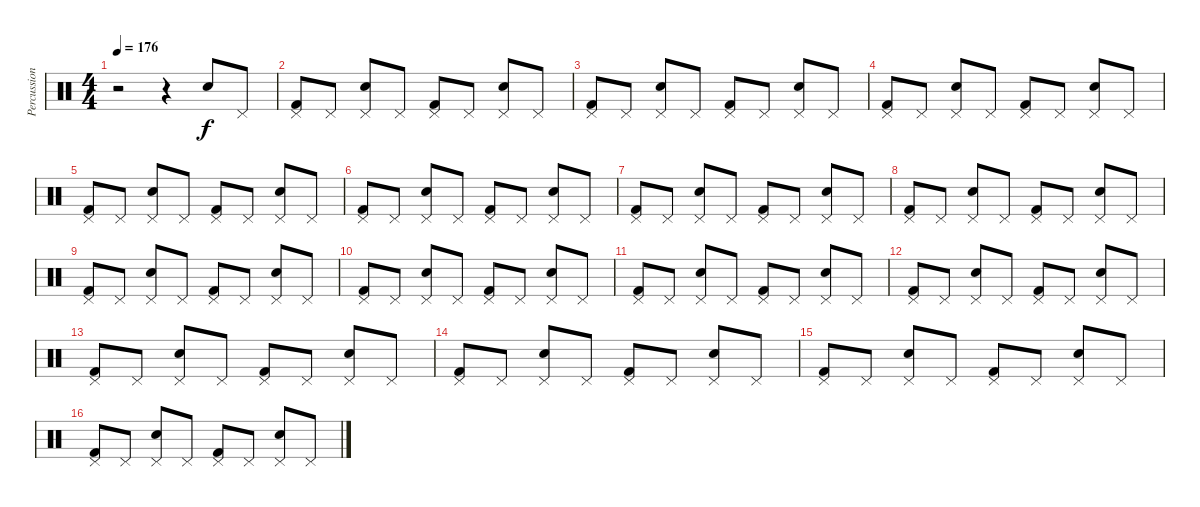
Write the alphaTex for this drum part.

\track ("Percussions" "Percussion") {instrument percussion}
\staff {score}
\articulation defaults
\ts (4 4)
\tempo 176
\clef neutral
\ks c
r.2{dy f} r.4 "Electric Snare (hit)".8 "Pedal Hi-Hat (hit)".8 |
("Pedal Hi-Hat (hit)" "Kick (hit) 2").8 "Pedal Hi-Hat (hit)".8 ("Pedal Hi-Hat (hit)" "Electric Snare (hit)").8 "Pedal Hi-Hat (hit)".8 ("Pedal Hi-Hat (hit)" "Kick (hit) 2").8 "Pedal Hi-Hat (hit)".8 ("Pedal Hi-Hat (hit)" "Electric Snare (hit)").8 "Pedal Hi-Hat (hit)".8 |
("Pedal Hi-Hat (hit)" "Kick (hit) 2").8 "Pedal Hi-Hat (hit)".8 ("Pedal Hi-Hat (hit)" "Electric Snare (hit)").8 "Pedal Hi-Hat (hit)".8 ("Pedal Hi-Hat (hit)" "Kick (hit) 2").8 "Pedal Hi-Hat (hit)".8 ("Pedal Hi-Hat (hit)" "Electric Snare (hit)").8 "Pedal Hi-Hat (hit)".8 |
("Pedal Hi-Hat (hit)" "Kick (hit) 2").8 "Pedal Hi-Hat (hit)".8 ("Pedal Hi-Hat (hit)" "Electric Snare (hit)").8 "Pedal Hi-Hat (hit)".8 ("Pedal Hi-Hat (hit)" "Kick (hit) 2").8 "Pedal Hi-Hat (hit)".8 ("Pedal Hi-Hat (hit)" "Electric Snare (hit)").8 "Pedal Hi-Hat (hit)".8 |
("Pedal Hi-Hat (hit)" "Kick (hit) 2").8 "Pedal Hi-Hat (hit)".8 ("Pedal Hi-Hat (hit)" "Electric Snare (hit)").8 "Pedal Hi-Hat (hit)".8 ("Pedal Hi-Hat (hit)" "Kick (hit) 2").8 "Pedal Hi-Hat (hit)".8 ("Pedal Hi-Hat (hit)" "Electric Snare (hit)").8 "Pedal Hi-Hat (hit)".8 |
("Pedal Hi-Hat (hit)" "Kick (hit) 2").8 "Pedal Hi-Hat (hit)".8 ("Pedal Hi-Hat (hit)" "Electric Snare (hit)").8 "Pedal Hi-Hat (hit)".8 ("Pedal Hi-Hat (hit)" "Kick (hit) 2").8 "Pedal Hi-Hat (hit)".8 ("Pedal Hi-Hat (hit)" "Electric Snare (hit)").8 "Pedal Hi-Hat (hit)".8 |
("Pedal Hi-Hat (hit)" "Kick (hit) 2").8 "Pedal Hi-Hat (hit)".8 ("Pedal Hi-Hat (hit)" "Electric Snare (hit)").8 "Pedal Hi-Hat (hit)".8 ("Pedal Hi-Hat (hit)" "Kick (hit) 2").8 "Pedal Hi-Hat (hit)".8 ("Pedal Hi-Hat (hit)" "Electric Snare (hit)").8 "Pedal Hi-Hat (hit)".8 |
("Pedal Hi-Hat (hit)" "Kick (hit) 2").8 "Pedal Hi-Hat (hit)".8 ("Pedal Hi-Hat (hit)" "Electric Snare (hit)").8 "Pedal Hi-Hat (hit)".8 ("Pedal Hi-Hat (hit)" "Kick (hit) 2").8 "Pedal Hi-Hat (hit)".8 ("Pedal Hi-Hat (hit)" "Electric Snare (hit)").8 "Pedal Hi-Hat (hit)".8 |
("Pedal Hi-Hat (hit)" "Kick (hit) 2").8 "Pedal Hi-Hat (hit)".8 ("Pedal Hi-Hat (hit)" "Electric Snare (hit)").8 "Pedal Hi-Hat (hit)".8 ("Pedal Hi-Hat (hit)" "Kick (hit) 2").8 "Pedal Hi-Hat (hit)".8 ("Pedal Hi-Hat (hit)" "Electric Snare (hit)").8 "Pedal Hi-Hat (hit)".8 |
("Pedal Hi-Hat (hit)" "Kick (hit) 2").8 "Pedal Hi-Hat (hit)".8 ("Pedal Hi-Hat (hit)" "Electric Snare (hit)").8 "Pedal Hi-Hat (hit)".8 ("Pedal Hi-Hat (hit)" "Kick (hit) 2").8 "Pedal Hi-Hat (hit)".8 ("Pedal Hi-Hat (hit)" "Electric Snare (hit)").8 "Pedal Hi-Hat (hit)".8 |
("Pedal Hi-Hat (hit)" "Kick (hit) 2").8 "Pedal Hi-Hat (hit)".8 ("Pedal Hi-Hat (hit)" "Electric Snare (hit)").8 "Pedal Hi-Hat (hit)".8 ("Pedal Hi-Hat (hit)" "Kick (hit) 2").8 "Pedal Hi-Hat (hit)".8 ("Pedal Hi-Hat (hit)" "Electric Snare (hit)").8 "Pedal Hi-Hat (hit)".8 |
("Pedal Hi-Hat (hit)" "Kick (hit) 2").8 "Pedal Hi-Hat (hit)".8 ("Pedal Hi-Hat (hit)" "Electric Snare (hit)").8 "Pedal Hi-Hat (hit)".8 ("Pedal Hi-Hat (hit)" "Kick (hit) 2").8 "Pedal Hi-Hat (hit)".8 ("Pedal Hi-Hat (hit)" "Electric Snare (hit)").8 "Pedal Hi-Hat (hit)".8 |
("Pedal Hi-Hat (hit)" "Kick (hit) 2").8 "Pedal Hi-Hat (hit)".8 ("Pedal Hi-Hat (hit)" "Electric Snare (hit)").8 "Pedal Hi-Hat (hit)".8 ("Pedal Hi-Hat (hit)" "Kick (hit) 2").8 "Pedal Hi-Hat (hit)".8 ("Pedal Hi-Hat (hit)" "Electric Snare (hit)").8 "Pedal Hi-Hat (hit)".8 |
("Pedal Hi-Hat (hit)" "Kick (hit) 2").8 "Pedal Hi-Hat (hit)".8 ("Pedal Hi-Hat (hit)" "Electric Snare (hit)").8 "Pedal Hi-Hat (hit)".8 ("Pedal Hi-Hat (hit)" "Kick (hit) 2").8 "Pedal Hi-Hat (hit)".8 ("Pedal Hi-Hat (hit)" "Electric Snare (hit)").8 "Pedal Hi-Hat (hit)".8 |
("Pedal Hi-Hat (hit)" "Kick (hit) 2").8 "Pedal Hi-Hat (hit)".8 ("Pedal Hi-Hat (hit)" "Electric Snare (hit)").8 "Pedal Hi-Hat (hit)".8 ("Pedal Hi-Hat (hit)" "Kick (hit) 2").8 "Pedal Hi-Hat (hit)".8 ("Pedal Hi-Hat (hit)" "Electric Snare (hit)").8 "Pedal Hi-Hat (hit)".8 |
("Pedal Hi-Hat (hit)" "Kick (hit) 2").8 "Pedal Hi-Hat (hit)".8 ("Pedal Hi-Hat (hit)" "Electric Snare (hit)").8 "Pedal Hi-Hat (hit)".8 ("Pedal Hi-Hat (hit)" "Kick (hit) 2").8 "Pedal Hi-Hat (hit)".8 ("Pedal Hi-Hat (hit)" "Electric Snare (hit)").8 "Pedal Hi-Hat (hit)".8
